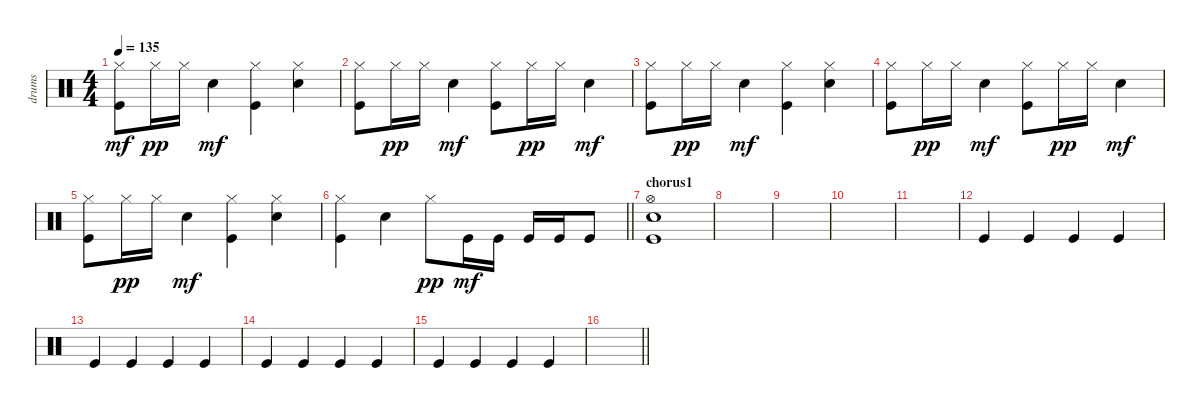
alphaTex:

\track ("drums" "drums") {instrument percussion}
\staff {score}
\articulation defaults
\ts (4 4)
\tempo 135
\clef neutral
\ks c
("Hi-Hat (closed)" "Kick (hit)").8{dy mf} "Hi-Hat (closed)".16{dy pp} "Hi-Hat (closed)".16 "Snare (hit) 2".4{dy mf} ("Hi-Hat (closed)" "Kick (hit)").4 ("Hi-Hat (closed)" "Snare (hit) 2").4 |
("Hi-Hat (closed)" "Kick (hit)").8 "Hi-Hat (closed)".16{dy pp} "Hi-Hat (closed)".16 "Snare (hit) 2".4{dy mf} ("Hi-Hat (closed)" "Kick (hit)").8 "Hi-Hat (closed)".16{dy pp} "Hi-Hat (closed)".16 "Snare (hit) 2".4{dy mf} |
("Hi-Hat (closed)" "Kick (hit)").8 "Hi-Hat (closed)".16{dy pp} "Hi-Hat (closed)".16 "Snare (hit) 2".4{dy mf} ("Hi-Hat (closed)" "Kick (hit)").4 ("Hi-Hat (closed)" "Snare (hit) 2").4 |
("Hi-Hat (closed)" "Kick (hit)").8 "Hi-Hat (closed)".16{dy pp} "Hi-Hat (closed)".16 "Snare (hit) 2".4{dy mf} ("Hi-Hat (closed)" "Kick (hit)").8 "Hi-Hat (closed)".16{dy pp} "Hi-Hat (closed)".16 "Snare (hit) 2".4{dy mf} |
("Hi-Hat (closed)" "Kick (hit)").8 "Hi-Hat (closed)".16{dy pp} "Hi-Hat (closed)".16 "Snare (hit) 2".4{dy mf} ("Hi-Hat (closed)" "Kick (hit)").4 ("Hi-Hat (closed)" "Snare (hit) 2").4 |
\barLineRight lightlight
("Hi-Hat (closed)" "Kick (hit)").4 "Snare (hit) 2".4 "Hi-Hat (closed)".8{dy pp} "Kick (hit)".16{dy mf} "Kick (hit)".16 "Kick (hit)".16 "Kick (hit)".16 "Kick (hit)".8 |
\section ("" "chorus1")
("Hi-Hat (open)" "Snare (hit) 2" "Kick (hit)").1 |
|
|
|
|
"Kick (hit)".4 "Kick (hit)".4 "Kick (hit)".4 "Kick (hit)".4 |
"Kick (hit)".4 "Kick (hit)".4 "Kick (hit)".4 "Kick (hit)".4 |
"Kick (hit)".4 "Kick (hit)".4 "Kick (hit)".4 "Kick (hit)".4 |
"Kick (hit)".4 "Kick (hit)".4 "Kick (hit)".4 "Kick (hit)".4 |
\barLineRight lightlight
